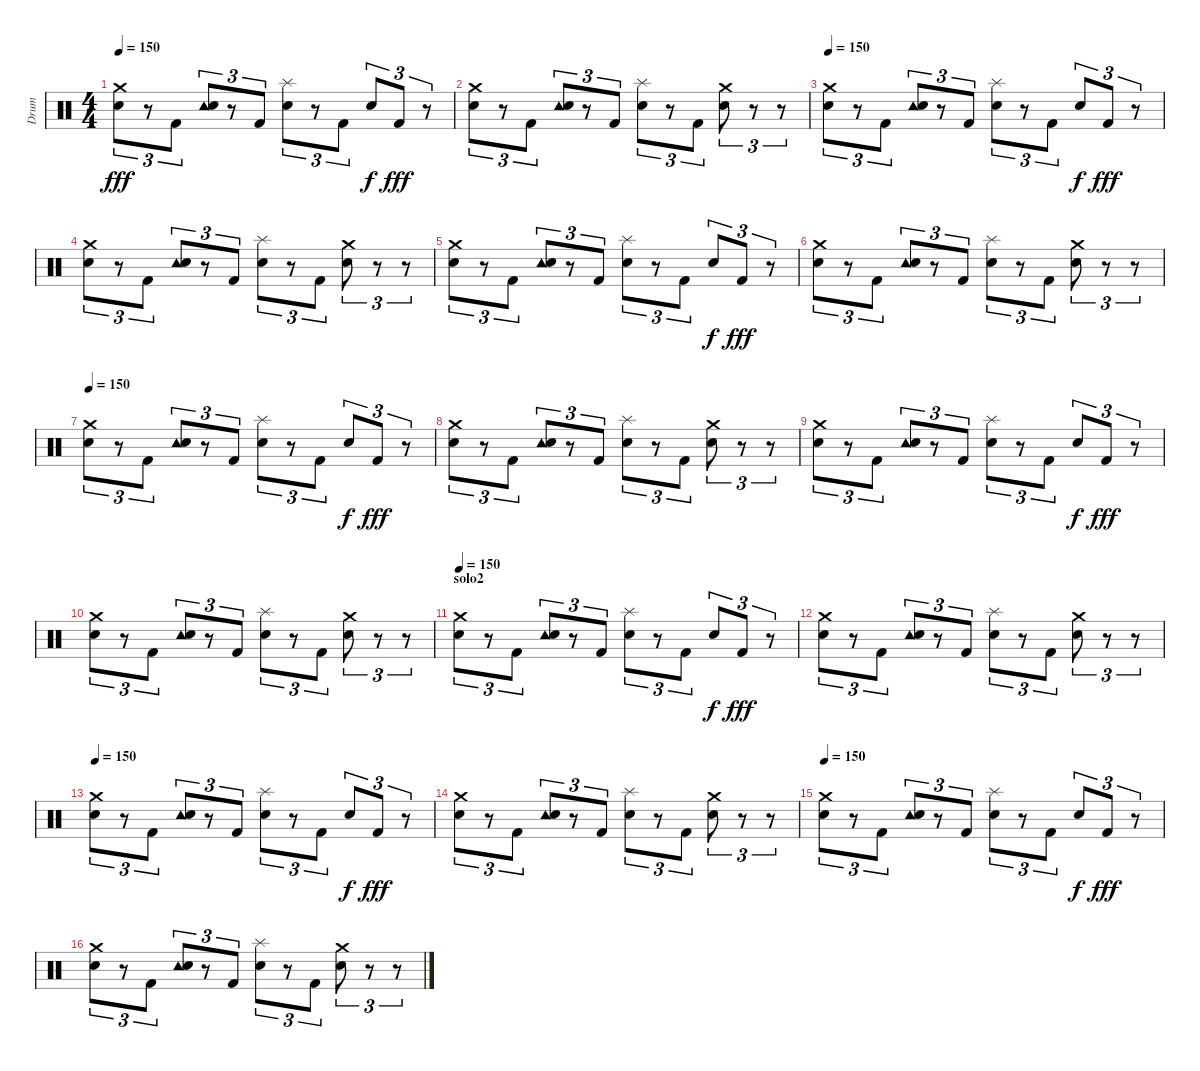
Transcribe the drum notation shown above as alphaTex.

\track ("Drum" "Drum") {instrument percussion}
\staff {score}
\articulation defaults
\ts (4 4)
\tempo 150
\clef neutral
\ks c
("Crash medium (hit)" "Electric Snare (hit)").8{tu (3 2) dy fff} r.8{tu (3 2)} "Kick (hit) 2".8{tu (3 2)} ("Tambourine (hit)" "Electric Snare (hit)").8{tu (3 2)} r.8{tu (3 2)} "Kick (hit) 2".8{tu (3 2)} ("Splash (hit)" "Snare (hit) 2").8{tu (3 2)} r.8{tu (3 2)} "Kick (hit) 2".8{tu (3 2)} "Electric Snare (hit)".8{tu (3 2) dy f} "Kick (hit) 2".8{tu (3 2) dy fff} r.8{tu (3 2)} |
("Crash medium (hit)" "Electric Snare (hit)").8{tu (3 2)} r.8{tu (3 2)} "Kick (hit) 2".8{tu (3 2)} ("Tambourine (hit)" "Electric Snare (hit)").8{tu (3 2)} r.8{tu (3 2)} "Kick (hit) 2".8{tu (3 2)} ("Splash (hit)" "Snare (hit) 2").8{tu (3 2)} r.8{tu (3 2)} "Kick (hit) 2".8{tu (3 2)} ("Crash medium (hit)" "Electric Snare (hit)").8{tu (3 2)} r.8{tu (3 2)} r.8{tu (3 2)} |
\tempo 150
("Crash medium (hit)" "Electric Snare (hit)").8{tu (3 2)} r.8{tu (3 2)} "Kick (hit) 2".8{tu (3 2)} ("Tambourine (hit)" "Electric Snare (hit)").8{tu (3 2)} r.8{tu (3 2)} "Kick (hit) 2".8{tu (3 2)} ("Splash (hit)" "Snare (hit) 2").8{tu (3 2)} r.8{tu (3 2)} "Kick (hit) 2".8{tu (3 2)} "Electric Snare (hit)".8{tu (3 2) dy f} "Kick (hit) 2".8{tu (3 2) dy fff} r.8{tu (3 2)} |
("Crash medium (hit)" "Electric Snare (hit)").8{tu (3 2)} r.8{tu (3 2)} "Kick (hit) 2".8{tu (3 2)} ("Tambourine (hit)" "Electric Snare (hit)").8{tu (3 2)} r.8{tu (3 2)} "Kick (hit) 2".8{tu (3 2)} ("Splash (hit)" "Snare (hit) 2").8{tu (3 2)} r.8{tu (3 2)} "Kick (hit) 2".8{tu (3 2)} ("Crash medium (hit)" "Electric Snare (hit)").8{tu (3 2)} r.8{tu (3 2)} r.8{tu (3 2)} |
("Crash medium (hit)" "Electric Snare (hit)").8{tu (3 2)} r.8{tu (3 2)} "Kick (hit) 2".8{tu (3 2)} ("Tambourine (hit)" "Electric Snare (hit)").8{tu (3 2)} r.8{tu (3 2)} "Kick (hit) 2".8{tu (3 2)} ("Splash (hit)" "Snare (hit) 2").8{tu (3 2)} r.8{tu (3 2)} "Kick (hit) 2".8{tu (3 2)} "Electric Snare (hit)".8{tu (3 2) dy f} "Kick (hit) 2".8{tu (3 2) dy fff} r.8{tu (3 2)} |
("Crash medium (hit)" "Electric Snare (hit)").8{tu (3 2)} r.8{tu (3 2)} "Kick (hit) 2".8{tu (3 2)} ("Tambourine (hit)" "Electric Snare (hit)").8{tu (3 2)} r.8{tu (3 2)} "Kick (hit) 2".8{tu (3 2)} ("Splash (hit)" "Snare (hit) 2").8{tu (3 2)} r.8{tu (3 2)} "Kick (hit) 2".8{tu (3 2)} ("Crash medium (hit)" "Electric Snare (hit)").8{tu (3 2)} r.8{tu (3 2)} r.8{tu (3 2)} |
\tempo 150
("Crash medium (hit)" "Electric Snare (hit)").8{tu (3 2)} r.8{tu (3 2)} "Kick (hit) 2".8{tu (3 2)} ("Tambourine (hit)" "Electric Snare (hit)").8{tu (3 2)} r.8{tu (3 2)} "Kick (hit) 2".8{tu (3 2)} ("Splash (hit)" "Snare (hit) 2").8{tu (3 2)} r.8{tu (3 2)} "Kick (hit) 2".8{tu (3 2)} "Electric Snare (hit)".8{tu (3 2) dy f} "Kick (hit) 2".8{tu (3 2) dy fff} r.8{tu (3 2)} |
("Crash medium (hit)" "Electric Snare (hit)").8{tu (3 2)} r.8{tu (3 2)} "Kick (hit) 2".8{tu (3 2)} ("Tambourine (hit)" "Electric Snare (hit)").8{tu (3 2)} r.8{tu (3 2)} "Kick (hit) 2".8{tu (3 2)} ("Splash (hit)" "Snare (hit) 2").8{tu (3 2)} r.8{tu (3 2)} "Kick (hit) 2".8{tu (3 2)} ("Crash medium (hit)" "Electric Snare (hit)").8{tu (3 2)} r.8{tu (3 2)} r.8{tu (3 2)} |
("Crash medium (hit)" "Electric Snare (hit)").8{tu (3 2)} r.8{tu (3 2)} "Kick (hit) 2".8{tu (3 2)} ("Tambourine (hit)" "Electric Snare (hit)").8{tu (3 2)} r.8{tu (3 2)} "Kick (hit) 2".8{tu (3 2)} ("Splash (hit)" "Snare (hit) 2").8{tu (3 2)} r.8{tu (3 2)} "Kick (hit) 2".8{tu (3 2)} "Electric Snare (hit)".8{tu (3 2) dy f} "Kick (hit) 2".8{tu (3 2) dy fff} r.8{tu (3 2)} |
("Crash medium (hit)" "Electric Snare (hit)").8{tu (3 2)} r.8{tu (3 2)} "Kick (hit) 2".8{tu (3 2)} ("Tambourine (hit)" "Electric Snare (hit)").8{tu (3 2)} r.8{tu (3 2)} "Kick (hit) 2".8{tu (3 2)} ("Splash (hit)" "Snare (hit) 2").8{tu (3 2)} r.8{tu (3 2)} "Kick (hit) 2".8{tu (3 2)} ("Crash medium (hit)" "Electric Snare (hit)").8{tu (3 2)} r.8{tu (3 2)} r.8{tu (3 2)} |
\section ("" "solo2")
\tempo 150
("Crash medium (hit)" "Electric Snare (hit)").8{tu (3 2)} r.8{tu (3 2)} "Kick (hit) 2".8{tu (3 2)} ("Tambourine (hit)" "Electric Snare (hit)").8{tu (3 2)} r.8{tu (3 2)} "Kick (hit) 2".8{tu (3 2)} ("Splash (hit)" "Snare (hit) 2").8{tu (3 2)} r.8{tu (3 2)} "Kick (hit) 2".8{tu (3 2)} "Electric Snare (hit)".8{tu (3 2) dy f} "Kick (hit) 2".8{tu (3 2) dy fff} r.8{tu (3 2)} |
("Crash medium (hit)" "Electric Snare (hit)").8{tu (3 2)} r.8{tu (3 2)} "Kick (hit) 2".8{tu (3 2)} ("Tambourine (hit)" "Electric Snare (hit)").8{tu (3 2)} r.8{tu (3 2)} "Kick (hit) 2".8{tu (3 2)} ("Splash (hit)" "Snare (hit) 2").8{tu (3 2)} r.8{tu (3 2)} "Kick (hit) 2".8{tu (3 2)} ("Crash medium (hit)" "Electric Snare (hit)").8{tu (3 2)} r.8{tu (3 2)} r.8{tu (3 2)} |
\tempo 150
("Crash medium (hit)" "Electric Snare (hit)").8{tu (3 2)} r.8{tu (3 2)} "Kick (hit) 2".8{tu (3 2)} ("Tambourine (hit)" "Electric Snare (hit)").8{tu (3 2)} r.8{tu (3 2)} "Kick (hit) 2".8{tu (3 2)} ("Splash (hit)" "Snare (hit) 2").8{tu (3 2)} r.8{tu (3 2)} "Kick (hit) 2".8{tu (3 2)} "Electric Snare (hit)".8{tu (3 2) dy f} "Kick (hit) 2".8{tu (3 2) dy fff} r.8{tu (3 2)} |
("Crash medium (hit)" "Electric Snare (hit)").8{tu (3 2)} r.8{tu (3 2)} "Kick (hit) 2".8{tu (3 2)} ("Tambourine (hit)" "Electric Snare (hit)").8{tu (3 2)} r.8{tu (3 2)} "Kick (hit) 2".8{tu (3 2)} ("Splash (hit)" "Snare (hit) 2").8{tu (3 2)} r.8{tu (3 2)} "Kick (hit) 2".8{tu (3 2)} ("Crash medium (hit)" "Electric Snare (hit)").8{tu (3 2)} r.8{tu (3 2)} r.8{tu (3 2)} |
\tempo 150
("Crash medium (hit)" "Electric Snare (hit)").8{tu (3 2)} r.8{tu (3 2)} "Kick (hit) 2".8{tu (3 2)} ("Tambourine (hit)" "Electric Snare (hit)").8{tu (3 2)} r.8{tu (3 2)} "Kick (hit) 2".8{tu (3 2)} ("Splash (hit)" "Snare (hit) 2").8{tu (3 2)} r.8{tu (3 2)} "Kick (hit) 2".8{tu (3 2)} "Electric Snare (hit)".8{tu (3 2) dy f} "Kick (hit) 2".8{tu (3 2) dy fff} r.8{tu (3 2)} |
("Crash medium (hit)" "Electric Snare (hit)").8{tu (3 2)} r.8{tu (3 2)} "Kick (hit) 2".8{tu (3 2)} ("Tambourine (hit)" "Electric Snare (hit)").8{tu (3 2)} r.8{tu (3 2)} "Kick (hit) 2".8{tu (3 2)} ("Splash (hit)" "Snare (hit) 2").8{tu (3 2)} r.8{tu (3 2)} "Kick (hit) 2".8{tu (3 2)} ("Crash medium (hit)" "Electric Snare (hit)").8{tu (3 2)} r.8{tu (3 2)} r.8{tu (3 2)}
